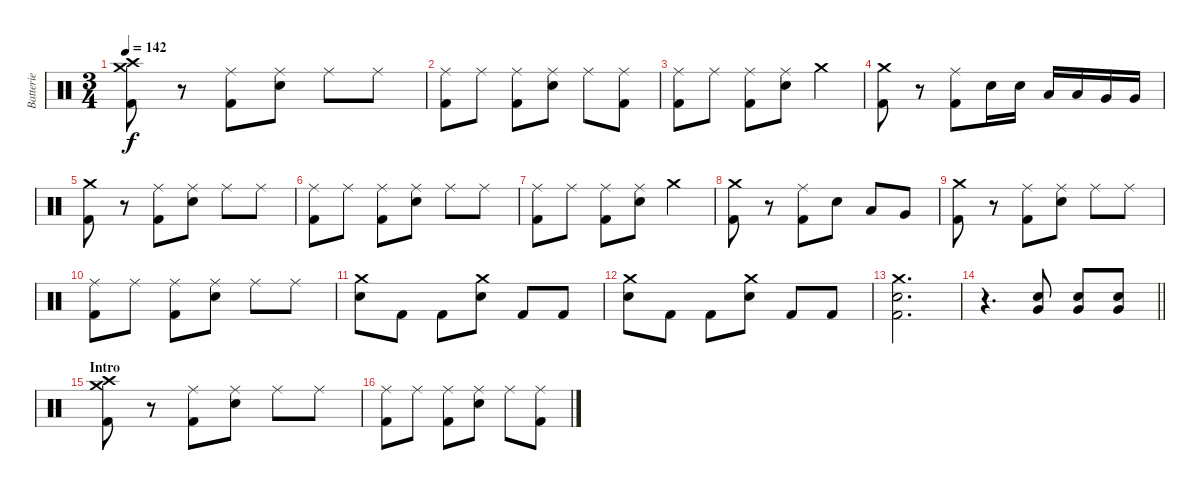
\track ("Batterie" "Batterie") {instrument percussion}
\staff {score}
\articulation defaults
\ts (3 4)
\tempo 142
\clef neutral
\ks c
("Crash medium (hit)" "Crash high (hit)" "Kick (hit) 2").8{dy f} r.8 ("Ride (middle)" "Kick (hit) 2").8 ("Ride (middle)" "Electric Snare (hit)").8 "Ride (middle)".8 "Ride (middle)".8 |
("Ride (middle)" "Kick (hit) 2").8 "Ride (middle)".8 ("Ride (middle)" "Kick (hit) 2").8 ("Ride (middle)" "Electric Snare (hit)").8 "Ride (middle)".8 ("Ride (middle)" "Kick (hit) 2").8 |
("Ride (middle)" "Kick (hit) 2").8 "Ride (middle)".8 ("Ride (middle)" "Kick (hit) 2").8 ("Ride (middle)" "Electric Snare (hit)").8 "Crash medium (hit)".4 |
("Crash medium (hit)" "Kick (hit) 2").8 r.8 ("Ride (middle)" "Kick (hit) 2").8 "Electric Snare (hit)".16 "Electric Snare (hit)".16 "Low Tom (hit)".16 "Low Tom (hit)".16 "Very Low Tom (hit)".16 "Very Low Tom (hit)".16 |
("Crash medium (hit)" "Kick (hit) 2").8 r.8 ("Ride (middle)" "Kick (hit) 2").8 ("Ride (middle)" "Electric Snare (hit)").8 "Ride (middle)".8 "Ride (middle)".8 |
("Ride (middle)" "Kick (hit) 2").8 "Ride (middle)".8 ("Ride (middle)" "Kick (hit) 2").8 ("Ride (middle)" "Electric Snare (hit)").8 "Ride (middle)".8 "Ride (middle)".8 |
("Ride (middle)" "Kick (hit) 2").8 "Ride (middle)".8 ("Ride (middle)" "Kick (hit) 2").8 ("Ride (middle)" "Electric Snare (hit)").8 "Crash medium (hit)".4 |
("Crash medium (hit)" "Kick (hit) 2").8 r.8 ("Ride (middle)" "Kick (hit) 2").8 "Electric Snare (hit)".8 "Low Tom (hit)".8 "Very Low Tom (hit)".8 |
("Crash medium (hit)" "Kick (hit) 2").8 r.8 ("Ride (middle)" "Kick (hit) 2").8 ("Ride (middle)" "Electric Snare (hit)").8 "Ride (middle)".8 "Ride (middle)".8 |
("Ride (middle)" "Kick (hit) 2").8 "Ride (middle)".8 ("Ride (middle)" "Kick (hit) 2").8 ("Ride (middle)" "Electric Snare (hit)").8 "Ride (middle)".8 "Ride (middle)".8 |
("Crash medium (hit)" "Electric Snare (hit)").8 "Kick (hit) 2".8 "Kick (hit) 2".8 ("Crash medium (hit)" "Electric Snare (hit)").8 "Kick (hit) 2".8 "Kick (hit) 2".8 |
("Crash medium (hit)" "Electric Snare (hit)").8 "Kick (hit) 2".8 "Kick (hit) 2".8 ("Crash medium (hit)" "Electric Snare (hit)").8 "Kick (hit) 2".8 "Kick (hit) 2".8 |
("Crash medium (hit)" "Electric Snare (hit)" "Kick (hit) 2").2{d} |
\barLineRight lightlight
r.4{d} ("Electric Snare (hit)" "Very Low Tom (hit)").8 ("Electric Snare (hit)" "Very Low Tom (hit)").8 ("Electric Snare (hit)" "Very Low Tom (hit)").8 |
\section ("" "Intro")
("Crash medium (hit)" "Crash high (hit)" "Kick (hit) 2").8 r.8 ("Ride (middle)" "Kick (hit) 2").8 ("Ride (middle)" "Electric Snare (hit)").8 "Ride (middle)".8 "Ride (middle)".8 |
("Ride (middle)" "Kick (hit) 2").8 "Ride (middle)".8 ("Ride (middle)" "Kick (hit) 2").8 ("Ride (middle)" "Electric Snare (hit)").8 "Ride (middle)".8 ("Ride (middle)" "Kick (hit) 2").8
